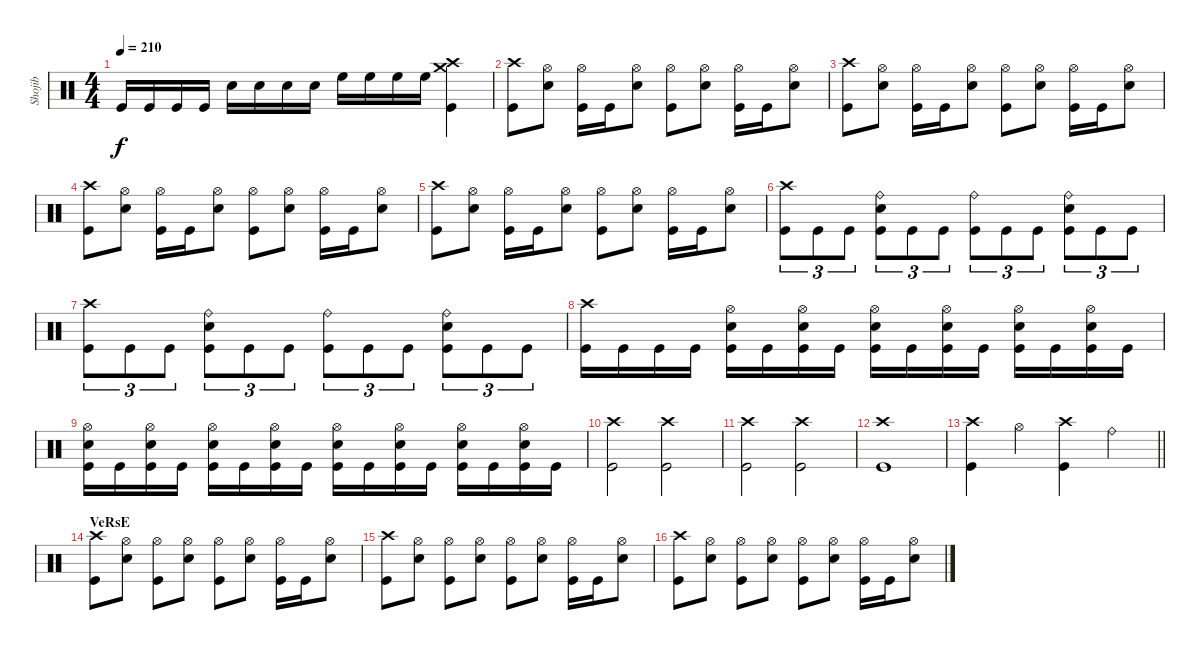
\track ("Shojib" "Shojib") {instrument percussion}
\staff {score}
\articulation defaults
\ts (4 4)
\tempo 210
\clef neutral
\ks c "Kick (hit)".16{dy f} "Kick (hit)".16 "Kick (hit)".16 "Kick (hit)".16 "Electric Snare (hit)".16 "Electric Snare (hit)".16 "Electric Snare (hit)".16 "Electric Snare (hit)".16 "High Floor Tom (hit)".16 "High Floor Tom (hit)".16 "High Floor Tom (hit)".16 "High Floor Tom (hit)".16
("Crash high (hit)" "Crash medium (hit)" "Kick (hit)").4 |
("Crash high (hit)" "Kick (hit)").8 ("Hi-Hat (open)" "Electric Snare (hit)").8 ("Hi-Hat (open)" "Kick (hit)").16 "Kick (hit)".16 ("Hi-Hat (open)" "Electric Snare (hit)").8 ("Hi-Hat (open)" "Kick (hit)").8 ("Hi-Hat (open)" "Electric Snare (hit)").8 ("Hi-Hat (open)" "Kick (hit)").16 "Kick (hit)".16 ("Hi-Hat (open)" "Electric Snare (hit)").8 |
("Crash high (hit)" "Kick (hit)").8 ("Hi-Hat (open)" "Electric Snare (hit)").8 ("Hi-Hat (open)" "Kick (hit)").16 "Kick (hit)".16 ("Hi-Hat (open)" "Electric Snare (hit)").8 ("Hi-Hat (open)" "Kick (hit)").8 ("Hi-Hat (open)" "Electric Snare (hit)").8 ("Hi-Hat (open)" "Kick (hit)").16 "Kick (hit)".16 ("Hi-Hat (open)" "Electric Snare (hit)").8 |
("Crash high (hit)" "Kick (hit)").8 ("Hi-Hat (open)" "Electric Snare (hit)").8 ("Hi-Hat (open)" "Kick (hit)").16 "Kick (hit)".16 ("Hi-Hat (open)" "Electric Snare (hit)").8 ("Hi-Hat (open)" "Kick (hit)").8 ("Hi-Hat (open)" "Electric Snare (hit)").8 ("Hi-Hat (open)" "Kick (hit)").16 "Kick (hit)".16 ("Hi-Hat (open)" "Electric Snare (hit)").8 |
("Crash high (hit)" "Kick (hit)").8 ("Hi-Hat (open)" "Electric Snare (hit)").8 ("Hi-Hat (open)" "Kick (hit)").16 "Kick (hit)".16 ("Hi-Hat (open)" "Electric Snare (hit)").8 ("Hi-Hat (open)" "Kick (hit)").8 ("Hi-Hat (open)" "Electric Snare (hit)").8 ("Hi-Hat (open)" "Kick (hit)").16 "Kick (hit)".16 ("Hi-Hat (open)" "Electric Snare (hit)").8 |
("Crash high (hit)" "Kick (hit)").8{tu (3 2)} "Kick (hit)".8{tu (3 2)} "Kick (hit)".8{tu (3 2)} ("Ride (bell)" "Electric Snare (hit)" "Kick (hit)").8{tu (3 2)} "Kick (hit)".8{tu (3 2)} "Kick (hit)".8{tu (3 2)} ("Ride (bell)" "Kick (hit)").8{tu (3 2)} "Kick (hit)".8{tu (3 2)} "Kick (hit)".8{tu (3 2)} ("Ride (bell)" "Electric Snare (hit)" "Kick (hit)").8{tu (3 2)} "Kick (hit)".8{tu (3 2)} "Kick (hit)".8{tu (3 2)} |
("Crash high (hit)" "Kick (hit)").8{tu (3 2)} "Kick (hit)".8{tu (3 2)} "Kick (hit)".8{tu (3 2)} ("Ride (bell)" "Electric Snare (hit)" "Kick (hit)").8{tu (3 2)} "Kick (hit)".8{tu (3 2)} "Kick (hit)".8{tu (3 2)} ("Ride (bell)" "Kick (hit)").8{tu (3 2)} "Kick (hit)".8{tu (3 2)} "Kick (hit)".8{tu (3 2)} ("Ride (bell)" "Electric Snare (hit)" "Kick (hit)").8{tu (3 2)} "Kick (hit)".8{tu (3 2)} "Kick (hit)".8{tu (3 2)} |
("Crash high (hit)" "Kick (hit)").16 "Kick (hit)".16 "Kick (hit)".16 "Kick (hit)".16 ("Hi-Hat (open)" "Electric Snare (hit)" "Kick (hit)").16 "Kick (hit)".16 ("Hi-Hat (open)" "Electric Snare (hit)" "Kick (hit)").16 "Kick (hit)".16 ("Hi-Hat (open)" "Electric Snare (hit)" "Kick (hit)").16 "Kick (hit)".16 ("Hi-Hat (open)" "Electric Snare (hit)" "Kick (hit)").16 "Kick (hit)".16 ("Hi-Hat (open)" "Electric Snare (hit)" "Kick (hit)").16 "Kick (hit)".16 ("Hi-Hat (open)" "Electric Snare (hit)" "Kick (hit)").16 "Kick (hit)".16 |
("Hi-Hat (open)" "Electric Snare (hit)" "Kick (hit)").16 "Kick (hit)".16 ("Hi-Hat (open)" "Electric Snare (hit)" "Kick (hit)").16 "Kick (hit)".16 ("Hi-Hat (open)" "Electric Snare (hit)" "Kick (hit)").16 "Kick (hit)".16 ("Hi-Hat (open)" "Electric Snare (hit)" "Kick (hit)").16 "Kick (hit)".16 ("Hi-Hat (open)" "Electric Snare (hit)" "Kick (hit)").16 "Kick (hit)".16 ("Hi-Hat (open)" "Electric Snare (hit)" "Kick (hit)").16 "Kick (hit)".16 ("Hi-Hat (open)" "Electric Snare (hit)" "Kick (hit)").16 "Kick (hit)".16 ("Hi-Hat (open)" "Electric Snare (hit)" "Kick (hit)").16 "Kick (hit)".16 |
("Crash high (hit)"{pm} "Kick (hit)").2 ("Crash high (hit)"{pm} "Kick (hit)").2 |
("Crash high (hit)"{pm} "Kick (hit)").2 ("Crash high (hit)"{pm} "Kick (hit)").2 |
("Crash high (hit)"{pm} "Kick (hit)").1 |
\barLineRight lightlight
("Crash high (hit)" "Kick (hit)").4 "Hi-Hat (open)".4 ("Crash high (hit)" "Kick (hit)").4 "Ride (bell)".4 |
\section ("" "VeRsE")
("Crash high (hit)" "Kick (hit)").8 ("Hi-Hat (open)" "Electric Snare (hit)").8 ("Hi-Hat (open)" "Kick (hit)").8 ("Hi-Hat (open)" "Electric Snare (hit)").8 ("Hi-Hat (open)" "Kick (hit)").8 ("Hi-Hat (open)" "Electric Snare (hit)").8 ("Hi-Hat (open)" "Kick (hit)").16 "Kick (hit)".16 ("Hi-Hat (open)" "Electric Snare (hit)").8 |
("Crash high (hit)" "Kick (hit)").8 ("Hi-Hat (open)" "Electric Snare (hit)").8 ("Hi-Hat (open)" "Kick (hit)").8 ("Hi-Hat (open)" "Electric Snare (hit)").8 ("Hi-Hat (open)" "Kick (hit)").8 ("Hi-Hat (open)" "Electric Snare (hit)").8 ("Hi-Hat (open)" "Kick (hit)").16 "Kick (hit)".16 ("Hi-Hat (open)" "Electric Snare (hit)").8 |
("Crash high (hit)" "Kick (hit)").8 ("Hi-Hat (open)" "Electric Snare (hit)").8 ("Hi-Hat (open)" "Kick (hit)").8 ("Hi-Hat (open)" "Electric Snare (hit)").8 ("Hi-Hat (open)" "Kick (hit)").8 ("Hi-Hat (open)" "Electric Snare (hit)").8 ("Hi-Hat (open)" "Kick (hit)").16 "Kick (hit)".16 ("Hi-Hat (open)" "Electric Snare (hit)").8
